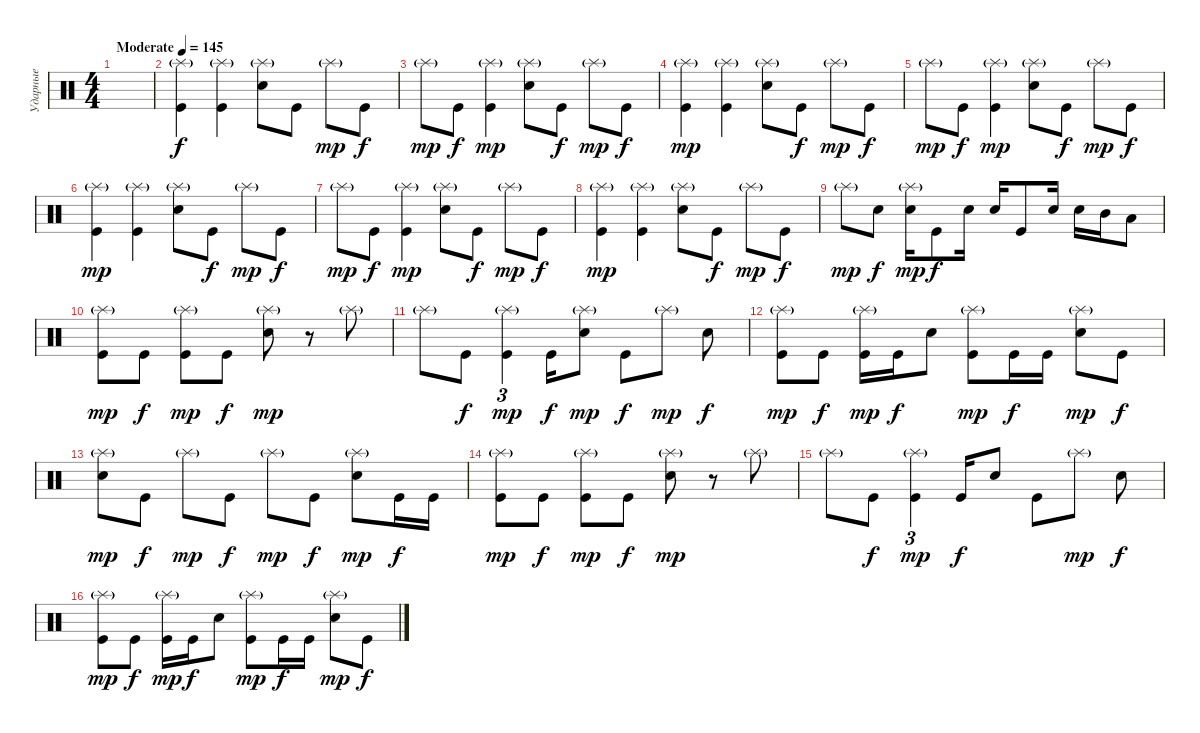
\track ("Ударные" "Ударные") {instrument percussion}
\staff {score}
\articulation defaults
\ts (4 4)
\tempo (145 "Moderate")
\clef neutral
\ks c
|
("Splash (hit)"{g} "Kick (hit)").4 ("Splash (hit)"{g} "Kick (hit)").4 ("Splash (hit)"{g} "Snare (hit) 2").8 "Kick (hit)".8{dy f} "Splash (hit)"{g}.8{dy mp} "Kick (hit)".8{dy f} |
"Splash (hit)"{g}.8{dy mp} "Kick (hit)".8{dy f} ("Splash (hit)"{g} "Kick (hit)").4{dy mp} ("Splash (hit)"{g} "Snare (hit) 2").8 "Kick (hit)".8{dy f} "Splash (hit)"{g}.8{dy mp} "Kick (hit)".8{dy f} |
("Splash (hit)"{g} "Kick (hit)").4{dy mp} ("Splash (hit)"{g} "Kick (hit)").4 ("Splash (hit)"{g} "Snare (hit) 2").8 "Kick (hit)".8{dy f} "Splash (hit)"{g}.8{dy mp} "Kick (hit)".8{dy f} |
"Splash (hit)"{g}.8{dy mp} "Kick (hit)".8{dy f} ("Splash (hit)"{g} "Kick (hit)").4{dy mp} ("Splash (hit)"{g} "Snare (hit) 2").8 "Kick (hit)".8{dy f} "Splash (hit)"{g}.8{dy mp} "Kick (hit)".8{dy f} |
("Splash (hit)"{g} "Kick (hit)").4{dy mp} ("Splash (hit)"{g} "Kick (hit)").4 ("Splash (hit)"{g} "Snare (hit) 2").8 "Kick (hit)".8{dy f} "Splash (hit)"{g}.8{dy mp} "Kick (hit)".8{dy f} |
"Splash (hit)"{g}.8{dy mp} "Kick (hit)".8{dy f} ("Splash (hit)"{g} "Kick (hit)").4{dy mp} ("Splash (hit)"{g} "Snare (hit) 2").8 "Kick (hit)".8{dy f} "Splash (hit)"{g}.8{dy mp} "Kick (hit)".8{dy f} |
("Splash (hit)"{g} "Kick (hit)").4{dy mp} ("Splash (hit)"{g} "Kick (hit)").4 ("Splash (hit)"{g} "Snare (hit) 2").8 "Kick (hit)".8{dy f} "Splash (hit)"{g}.8{dy mp} "Kick (hit)".8{dy f} |
"Splash (hit)"{g}.8{dy mp} "Snare (hit) 2".8{dy f} ("Splash (hit)"{g} "Snare (hit) 2").16{dy mp} "Kick (hit)".8{dy f} "Snare (hit) 2".16 "Snare (hit) 2".16 "Kick (hit)".8 "Snare (hit) 2".16 "Snare (hit) 2".16 "Mid Tom (hit)".16 "Low Tom (hit)".8 |
("Splash (hit)"{g} "Kick (hit)").8{dy mp} "Kick (hit)".8{dy f} ("Splash (hit)"{g} "Kick (hit)").8{dy mp} "Kick (hit)".8{dy f} ("Splash (hit)"{g} "Snare (hit) 2").8{dy mp} r.8 "Splash (hit)"{g}.8 |
"Splash (hit)"{g}.8 "Kick (hit)".8{dy f} ("Splash (hit)"{g} "Kick (hit)").4{tu (3 2) dy mp} "Kick (hit)".16{dy f} ("Splash (hit)"{g} "Snare (hit) 2").8{dy mp} "Kick (hit)".8{dy f} "Splash (hit)"{g}.8{dy mp} "Electric Snare (hit)".8{dy f} |
("Splash (hit)"{g} "Kick (hit)").8{dy mp} "Kick (hit)".8{dy f} ("Splash (hit)"{g} "Kick (hit)").16{dy mp} "Kick (hit)".16{dy f} "Snare (hit) 2".8 ("Splash (hit)"{g} "Kick (hit)").8{dy mp} "Kick (hit)".16{dy f} "Kick (hit)".16 ("Splash (hit)"{g} "Snare (hit) 2").8{dy mp} "Kick (hit)".8{dy f} |
("Splash (hit)"{g} "Snare (hit) 2").8{dy mp} "Kick (hit)".8{dy f} "Splash (hit)"{g}.8{dy mp} "Kick (hit)".8{dy f} "Splash (hit)"{g}.8{dy mp} "Kick (hit)".8{dy f} ("Splash (hit)"{g} "Snare (hit) 2").8{dy mp} "Kick (hit)".16{dy f} "Kick (hit)".16 |
("Splash (hit)"{g} "Kick (hit)").8{dy mp} "Kick (hit)".8{dy f} ("Splash (hit)"{g} "Kick (hit)").8{dy mp} "Kick (hit)".8{dy f} ("Splash (hit)"{g} "Snare (hit) 2").8{dy mp} r.8 "Splash (hit)"{g}.8 |
"Splash (hit)"{g}.8 "Kick (hit)".8{dy f} ("Splash (hit)"{g} "Kick (hit)").4{tu (3 2) dy mp} "Kick (hit)".16{dy f} "Snare (hit) 2".8 "Kick (hit)".8 "Splash (hit)"{g}.8{dy mp} "Electric Snare (hit)".8{dy f} |
("Splash (hit)"{g} "Kick (hit)").8{dy mp} "Kick (hit)".8{dy f} ("Splash (hit)"{g} "Kick (hit)").16{dy mp} "Kick (hit)".16{dy f} "Snare (hit) 2".8 ("Splash (hit)"{g} "Kick (hit)").8{dy mp} "Kick (hit)".16{dy f} "Kick (hit)".16 ("Splash (hit)"{g} "Snare (hit) 2").8{dy mp} "Kick (hit)".8{dy f}
